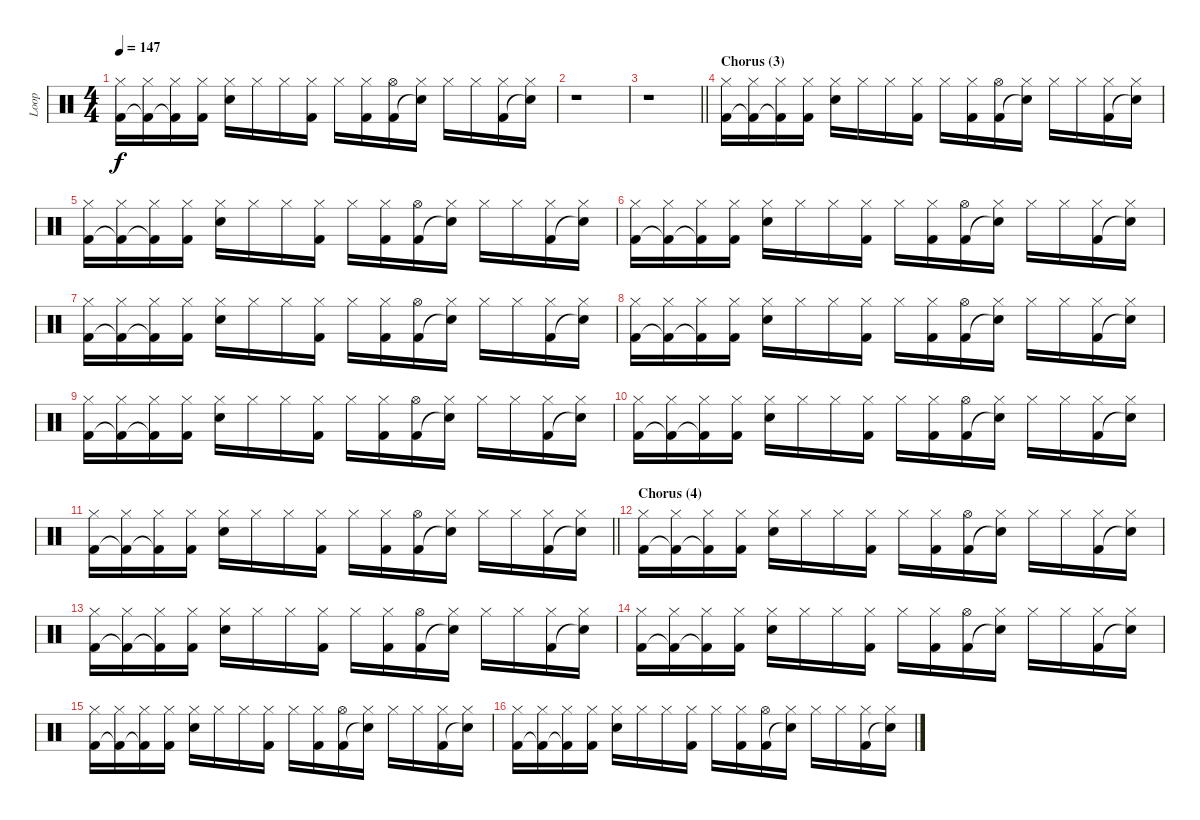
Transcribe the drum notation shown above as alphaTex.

\track ("Loop" "Loop") {instrument percussion}
\staff {score}
\articulation defaults
\ts (4 4)
\tempo 147
\clef neutral
\ks aminor
("Hi-Hat (closed)" "Kick (hit) 2").16{dy f} ("Hi-Hat (closed)" "Kick (hit) 2"{t}).16 ("Hi-Hat (closed)" "Kick (hit) 2"{t}).16 ("Hi-Hat (closed)" "Kick (hit) 2").16 ("Hi-Hat (closed)" "Electric Snare (hit)").16 "Hi-Hat (closed)".16 "Hi-Hat (closed)".16 ("Hi-Hat (closed)" "Kick (hit) 2").16 "Hi-Hat (closed)".16 ("Hi-Hat (closed)" "Kick (hit) 2").16 ("Hi-Hat (open)" "Kick (hit) 2").16 ("Hi-Hat (closed)" "Snare (hit)"{t}).16 "Hi-Hat (closed)".16 "Hi-Hat (closed)".16 ("Hi-Hat (closed)" "Kick (hit) 2").16 ("Hi-Hat (closed)" "Snare (hit)"{t}).16 |
r.1 |
\barLineRight lightlight
r.1 |
\section ("" "Chorus (3)")
("Hi-Hat (closed)" "Kick (hit) 2").16 ("Hi-Hat (closed)" "Kick (hit) 2"{t}).16 ("Hi-Hat (closed)" "Kick (hit) 2"{t}).16 ("Hi-Hat (closed)" "Kick (hit) 2").16 ("Hi-Hat (closed)" "Electric Snare (hit)").16 "Hi-Hat (closed)".16 "Hi-Hat (closed)".16 ("Hi-Hat (closed)" "Kick (hit) 2").16 "Hi-Hat (closed)".16 ("Hi-Hat (closed)" "Kick (hit) 2").16 ("Hi-Hat (open)" "Kick (hit) 2").16 ("Hi-Hat (closed)" "Snare (hit)"{t}).16 "Hi-Hat (closed)".16 "Hi-Hat (closed)".16 ("Hi-Hat (closed)" "Kick (hit) 2").16 ("Hi-Hat (closed)" "Snare (hit)"{t}).16 |
("Hi-Hat (closed)" "Kick (hit) 2").16 ("Hi-Hat (closed)" "Kick (hit) 2"{t}).16 ("Hi-Hat (closed)" "Kick (hit) 2"{t}).16 ("Hi-Hat (closed)" "Kick (hit) 2").16 ("Hi-Hat (closed)" "Electric Snare (hit)").16 "Hi-Hat (closed)".16 "Hi-Hat (closed)".16 ("Hi-Hat (closed)" "Kick (hit) 2").16 "Hi-Hat (closed)".16 ("Hi-Hat (closed)" "Kick (hit) 2").16 ("Hi-Hat (open)" "Kick (hit) 2").16 ("Hi-Hat (closed)" "Snare (hit)"{t}).16 "Hi-Hat (closed)".16 "Hi-Hat (closed)".16 ("Hi-Hat (closed)" "Kick (hit) 2").16 ("Hi-Hat (closed)" "Snare (hit)"{t}).16 |
("Hi-Hat (closed)" "Kick (hit) 2").16 ("Hi-Hat (closed)" "Kick (hit) 2"{t}).16 ("Hi-Hat (closed)" "Kick (hit) 2"{t}).16 ("Hi-Hat (closed)" "Kick (hit) 2").16 ("Hi-Hat (closed)" "Electric Snare (hit)").16 "Hi-Hat (closed)".16 "Hi-Hat (closed)".16 ("Hi-Hat (closed)" "Kick (hit) 2").16 "Hi-Hat (closed)".16 ("Hi-Hat (closed)" "Kick (hit) 2").16 ("Hi-Hat (open)" "Kick (hit) 2").16 ("Hi-Hat (closed)" "Snare (hit)"{t}).16 "Hi-Hat (closed)".16 "Hi-Hat (closed)".16 ("Hi-Hat (closed)" "Kick (hit) 2").16 ("Hi-Hat (closed)" "Snare (hit)"{t}).16 |
("Hi-Hat (closed)" "Kick (hit) 2").16 ("Hi-Hat (closed)" "Kick (hit) 2"{t}).16 ("Hi-Hat (closed)" "Kick (hit) 2"{t}).16 ("Hi-Hat (closed)" "Kick (hit) 2").16 ("Hi-Hat (closed)" "Electric Snare (hit)").16 "Hi-Hat (closed)".16 "Hi-Hat (closed)".16 ("Hi-Hat (closed)" "Kick (hit) 2").16 "Hi-Hat (closed)".16 ("Hi-Hat (closed)" "Kick (hit) 2").16 ("Hi-Hat (open)" "Kick (hit) 2").16 ("Hi-Hat (closed)" "Snare (hit)"{t}).16 "Hi-Hat (closed)".16 "Hi-Hat (closed)".16 ("Hi-Hat (closed)" "Kick (hit) 2").16 ("Hi-Hat (closed)" "Snare (hit)"{t}).16 |
("Hi-Hat (closed)" "Kick (hit) 2").16 ("Hi-Hat (closed)" "Kick (hit) 2"{t}).16 ("Hi-Hat (closed)" "Kick (hit) 2"{t}).16 ("Hi-Hat (closed)" "Kick (hit) 2").16 ("Hi-Hat (closed)" "Electric Snare (hit)").16 "Hi-Hat (closed)".16 "Hi-Hat (closed)".16 ("Hi-Hat (closed)" "Kick (hit) 2").16 "Hi-Hat (closed)".16 ("Hi-Hat (closed)" "Kick (hit) 2").16 ("Hi-Hat (open)" "Kick (hit) 2").16 ("Hi-Hat (closed)" "Snare (hit)"{t}).16 "Hi-Hat (closed)".16 "Hi-Hat (closed)".16 ("Hi-Hat (closed)" "Kick (hit) 2").16 ("Hi-Hat (closed)" "Snare (hit)"{t}).16 |
("Hi-Hat (closed)" "Kick (hit) 2").16 ("Hi-Hat (closed)" "Kick (hit) 2"{t}).16 ("Hi-Hat (closed)" "Kick (hit) 2"{t}).16 ("Hi-Hat (closed)" "Kick (hit) 2").16 ("Hi-Hat (closed)" "Electric Snare (hit)").16 "Hi-Hat (closed)".16 "Hi-Hat (closed)".16 ("Hi-Hat (closed)" "Kick (hit) 2").16 "Hi-Hat (closed)".16 ("Hi-Hat (closed)" "Kick (hit) 2").16 ("Hi-Hat (open)" "Kick (hit) 2").16 ("Hi-Hat (closed)" "Snare (hit)"{t}).16 "Hi-Hat (closed)".16 "Hi-Hat (closed)".16 ("Hi-Hat (closed)" "Kick (hit) 2").16 ("Hi-Hat (closed)" "Snare (hit)"{t}).16 |
("Hi-Hat (closed)" "Kick (hit) 2").16 ("Hi-Hat (closed)" "Kick (hit) 2"{t}).16 ("Hi-Hat (closed)" "Kick (hit) 2"{t}).16 ("Hi-Hat (closed)" "Kick (hit) 2").16 ("Hi-Hat (closed)" "Electric Snare (hit)").16 "Hi-Hat (closed)".16 "Hi-Hat (closed)".16 ("Hi-Hat (closed)" "Kick (hit) 2").16 "Hi-Hat (closed)".16 ("Hi-Hat (closed)" "Kick (hit) 2").16 ("Hi-Hat (open)" "Kick (hit) 2").16 ("Hi-Hat (closed)" "Snare (hit)"{t}).16 "Hi-Hat (closed)".16 "Hi-Hat (closed)".16 ("Hi-Hat (closed)" "Kick (hit) 2").16 ("Hi-Hat (closed)" "Snare (hit)"{t}).16 |
\barLineRight lightlight
("Hi-Hat (closed)" "Kick (hit) 2").16 ("Hi-Hat (closed)" "Kick (hit) 2"{t}).16 ("Hi-Hat (closed)" "Kick (hit) 2"{t}).16 ("Hi-Hat (closed)" "Kick (hit) 2").16 ("Hi-Hat (closed)" "Electric Snare (hit)").16 "Hi-Hat (closed)".16 "Hi-Hat (closed)".16 ("Hi-Hat (closed)" "Kick (hit) 2").16 "Hi-Hat (closed)".16 ("Hi-Hat (closed)" "Kick (hit) 2").16 ("Hi-Hat (open)" "Kick (hit) 2").16 ("Hi-Hat (closed)" "Snare (hit)"{t}).16 "Hi-Hat (closed)".16 "Hi-Hat (closed)".16 ("Hi-Hat (closed)" "Kick (hit) 2").16 ("Hi-Hat (closed)" "Snare (hit)"{t}).16 |
\section ("" "Chorus (4)")
("Hi-Hat (closed)" "Kick (hit) 2").16 ("Hi-Hat (closed)" "Kick (hit) 2"{t}).16 ("Hi-Hat (closed)" "Kick (hit) 2"{t}).16 ("Hi-Hat (closed)" "Kick (hit) 2").16 ("Hi-Hat (closed)" "Electric Snare (hit)").16 "Hi-Hat (closed)".16 "Hi-Hat (closed)".16 ("Hi-Hat (closed)" "Kick (hit) 2").16 "Hi-Hat (closed)".16 ("Hi-Hat (closed)" "Kick (hit) 2").16 ("Hi-Hat (open)" "Kick (hit) 2").16 ("Hi-Hat (closed)" "Snare (hit)"{t}).16 "Hi-Hat (closed)".16 "Hi-Hat (closed)".16 ("Hi-Hat (closed)" "Kick (hit) 2").16 ("Hi-Hat (closed)" "Snare (hit)"{t}).16 |
("Hi-Hat (closed)" "Kick (hit) 2").16 ("Hi-Hat (closed)" "Kick (hit) 2"{t}).16 ("Hi-Hat (closed)" "Kick (hit) 2"{t}).16 ("Hi-Hat (closed)" "Kick (hit) 2").16 ("Hi-Hat (closed)" "Electric Snare (hit)").16 "Hi-Hat (closed)".16 "Hi-Hat (closed)".16 ("Hi-Hat (closed)" "Kick (hit) 2").16 "Hi-Hat (closed)".16 ("Hi-Hat (closed)" "Kick (hit) 2").16 ("Hi-Hat (open)" "Kick (hit) 2").16 ("Hi-Hat (closed)" "Snare (hit)"{t}).16 "Hi-Hat (closed)".16 "Hi-Hat (closed)".16 ("Hi-Hat (closed)" "Kick (hit) 2").16 ("Hi-Hat (closed)" "Snare (hit)"{t}).16 |
("Hi-Hat (closed)" "Kick (hit) 2").16 ("Hi-Hat (closed)" "Kick (hit) 2"{t}).16 ("Hi-Hat (closed)" "Kick (hit) 2"{t}).16 ("Hi-Hat (closed)" "Kick (hit) 2").16 ("Hi-Hat (closed)" "Electric Snare (hit)").16 "Hi-Hat (closed)".16 "Hi-Hat (closed)".16 ("Hi-Hat (closed)" "Kick (hit) 2").16 "Hi-Hat (closed)".16 ("Hi-Hat (closed)" "Kick (hit) 2").16 ("Hi-Hat (open)" "Kick (hit) 2").16 ("Hi-Hat (closed)" "Snare (hit)"{t}).16 "Hi-Hat (closed)".16 "Hi-Hat (closed)".16 ("Hi-Hat (closed)" "Kick (hit) 2").16 ("Hi-Hat (closed)" "Snare (hit)"{t}).16 |
("Hi-Hat (closed)" "Kick (hit) 2").16 ("Hi-Hat (closed)" "Kick (hit) 2"{t}).16 ("Hi-Hat (closed)" "Kick (hit) 2"{t}).16 ("Hi-Hat (closed)" "Kick (hit) 2").16 ("Hi-Hat (closed)" "Electric Snare (hit)").16 "Hi-Hat (closed)".16 "Hi-Hat (closed)".16 ("Hi-Hat (closed)" "Kick (hit) 2").16 "Hi-Hat (closed)".16 ("Hi-Hat (closed)" "Kick (hit) 2").16 ("Hi-Hat (open)" "Kick (hit) 2").16 ("Hi-Hat (closed)" "Snare (hit)"{t}).16 "Hi-Hat (closed)".16 "Hi-Hat (closed)".16 ("Hi-Hat (closed)" "Kick (hit) 2").16 ("Hi-Hat (closed)" "Snare (hit)"{t}).16 |
("Hi-Hat (closed)" "Kick (hit) 2").16 ("Hi-Hat (closed)" "Kick (hit) 2"{t}).16 ("Hi-Hat (closed)" "Kick (hit) 2"{t}).16 ("Hi-Hat (closed)" "Kick (hit) 2").16 ("Hi-Hat (closed)" "Electric Snare (hit)").16 "Hi-Hat (closed)".16 "Hi-Hat (closed)".16 ("Hi-Hat (closed)" "Kick (hit) 2").16 "Hi-Hat (closed)".16 ("Hi-Hat (closed)" "Kick (hit) 2").16 ("Hi-Hat (open)" "Kick (hit) 2").16 ("Hi-Hat (closed)" "Snare (hit)"{t}).16 "Hi-Hat (closed)".16 "Hi-Hat (closed)".16 ("Hi-Hat (closed)" "Kick (hit) 2").16 ("Hi-Hat (closed)" "Snare (hit)"{t}).16
